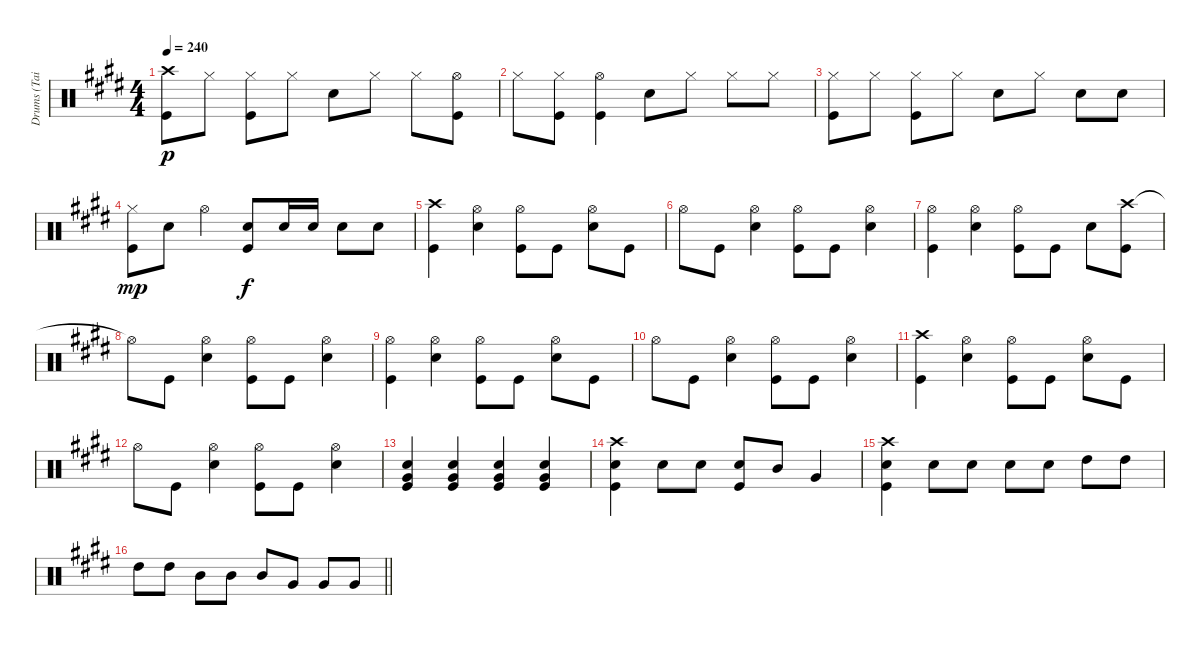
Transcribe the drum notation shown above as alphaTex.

\track ("Drums (Tainaka Ritsu)" "Drums (Tai") {instrument percussion}
\staff {score}
\articulation defaults
\ts (4 4)
\tempo 240
\clef neutral
\ks e
("Crash high (hit)" "Kick (hit)").8{dy p} "Hi-Hat (closed)".8 ("Hi-Hat (closed)" "Kick (hit)").8 "Hi-Hat (closed)".8 "Snare (hit) 2".8 "Hi-Hat (closed)".8 "Hi-Hat (closed)".8 ("Hi-Hat (open)" "Kick (hit)").8 |
"Hi-Hat (closed)".8 ("Hi-Hat (closed)" "Kick (hit)").8 ("Hi-Hat (open)" "Kick (hit)").4 "Snare (hit) 2".8 "Hi-Hat (closed)".8 "Hi-Hat (closed)".8 "Hi-Hat (closed)".8 |
("Hi-Hat (closed)" "Kick (hit)").8 "Hi-Hat (closed)".8 ("Hi-Hat (closed)" "Kick (hit)").8 "Hi-Hat (closed)".8 "Snare (hit) 2".8 "Hi-Hat (closed)".8 "Snare (hit) 2".8 "Snare (hit) 2".8 |
("Hi-Hat (closed)" "Kick (hit)").8{dy mp} "Snare (hit) 2".8 "Hi-Hat (open)".4 ("Snare (hit) 2" "Kick (hit)").8{dy f} "Snare (hit) 2".16 "Snare (hit) 2".16 "Snare (hit) 2".8 "Snare (hit) 2".8 |
("Crash high (hit)" "Kick (hit)").4 ("Hi-Hat (open)" "Snare (hit) 2").4 ("Hi-Hat (open)" "Kick (hit)").8 "Kick (hit)".8 ("Hi-Hat (open)" "Snare (hit) 2").8 "Kick (hit)".8 |
"Hi-Hat (open)".8 "Kick (hit)".8 ("Hi-Hat (open)" "Snare (hit) 2").4 ("Hi-Hat (open)" "Kick (hit)").8 "Kick (hit)".8 ("Hi-Hat (open)" "Snare (hit) 2").4 |
("Hi-Hat (open)" "Kick (hit)").4 ("Hi-Hat (open)" "Snare (hit) 2").4 ("Hi-Hat (open)" "Kick (hit)").8 "Kick (hit)".8 "Snare (hit) 2".8 ("Crash high (hit)" "Kick (hit)").8 |
"Hi-Hat (open)"{t}.8 "Kick (hit)".8 ("Hi-Hat (open)" "Snare (hit) 2").4 ("Hi-Hat (open)" "Kick (hit)").8 "Kick (hit)".8 ("Hi-Hat (open)" "Snare (hit) 2").4 |
("Hi-Hat (open)" "Kick (hit)").4 ("Hi-Hat (open)" "Snare (hit) 2").4 ("Hi-Hat (open)" "Kick (hit)").8 "Kick (hit)".8 ("Hi-Hat (open)" "Snare (hit) 2").8 "Kick (hit)".8 |
"Hi-Hat (open)".8 "Kick (hit)".8 ("Hi-Hat (open)" "Snare (hit) 2").4 ("Hi-Hat (open)" "Kick (hit)").8 "Kick (hit)".8 ("Hi-Hat (open)" "Snare (hit) 2").4 |
("Crash high (hit)" "Kick (hit)").4 ("Hi-Hat (open)" "Snare (hit) 2").4 ("Hi-Hat (open)" "Kick (hit)").8 "Kick (hit)".8 ("Hi-Hat (open)" "Snare (hit) 2").8 "Kick (hit)".8 |
"Hi-Hat (open)".8 "Kick (hit)".8 ("Hi-Hat (open)" "Snare (hit) 2").4 ("Hi-Hat (open)" "Kick (hit)").8 "Kick (hit)".8 ("Hi-Hat (open)" "Snare (hit) 2").4 |
("Snare (hit) 2" "Very Low Tom (hit)" "Kick (hit)").4 ("Snare (hit) 2" "Very Low Tom (hit)" "Kick (hit)").4 ("Snare (hit) 2" "Very Low Tom (hit)" "Kick (hit)").4 ("Snare (hit) 2" "Very Low Tom (hit)" "Kick (hit)").4 |
("Crash high (hit)" "Snare (hit) 2" "Kick (hit)").4 "Snare (hit) 2".8 "Snare (hit) 2".8 ("Snare (hit) 2" "Kick (hit)").8 "Mid Tom (hit)".8 "Very Low Tom (hit)".4 |
("Crash high (hit)" "Snare (hit) 2" "Kick (hit)").4 "Snare (hit) 2".8 "Snare (hit) 2".8 "Snare (hit) 2".8 "Snare (hit) 2".8 "High Tom (hit)".8 "High Tom (hit)".8 |
\barLineRight lightlight "High Tom (hit)".8 "High Tom (hit)".8 "Mid Tom (hit)".8 "Mid Tom (hit)".8 "Mid Tom (hit)".8 "Very Low Tom (hit)".8 "Very Low Tom (hit)".8 "Very Low Tom (hit)".8
